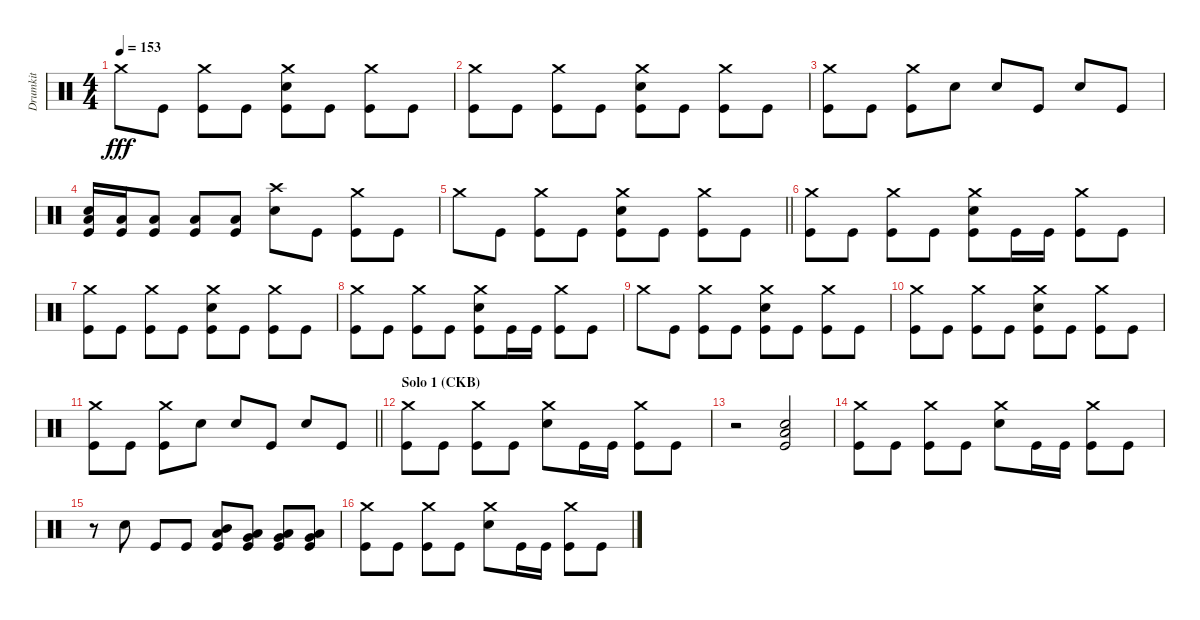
\track ("Drumkit" "Drumkit") {instrument percussion}
\staff {score}
\articulation defaults
\ts (4 4)
\tempo 153
\clef neutral
\ks c "Crash medium (hit)".8{dy fff} "Kick (hit)".8
("Crash medium (hit)" "Kick (hit)").8 "Kick (hit)".8 ("Crash medium (hit)" "Snare (hit) 2" "Kick (hit)").8 "Kick (hit)".8 ("Crash medium (hit)" "Kick (hit)").8 "Kick (hit)".8 |
("Crash medium (hit)" "Kick (hit)").8 "Kick (hit)".8 ("Crash medium (hit)" "Kick (hit)").8 "Kick (hit)".8 ("Crash medium (hit)" "Snare (hit) 2" "Kick (hit)").8 "Kick (hit)".8 ("Crash medium (hit)" "Kick (hit)").8 "Kick (hit)".8 |
("Crash medium (hit)" "Kick (hit)").8 "Kick (hit)".8 ("Crash medium (hit)" "Kick (hit)").8 "Snare (hit) 2".8 "Snare (hit) 2".8 "Kick (hit)".8 "Snare (hit) 2".8 "Kick (hit)".8 |
("Low Floor Tom (hit)" "Snare (hit) 2" "Kick (hit)").16 ("Low Floor Tom (hit)" "Kick (hit)").16 ("Low Floor Tom (hit)" "Kick (hit)").8 ("Low Floor Tom (hit)" "Kick (hit)").8 ("Low Floor Tom (hit)" "Kick (hit)").8 ("Crash high (hit)" "Snare (hit) 2").8 "Kick (hit)".8 ("Crash medium (hit)" "Kick (hit)").8 "Kick (hit)".8 |
\barLineRight lightlight "Crash medium (hit)".8 "Kick (hit)".8
("Crash medium (hit)" "Kick (hit)").8 "Kick (hit)".8 ("Crash medium (hit)" "Snare (hit) 2" "Kick (hit)").8 "Kick (hit)".8 ("Crash medium (hit)" "Kick (hit)").8 "Kick (hit)".8 |
("Crash medium (hit)" "Kick (hit)").8 "Kick (hit)".8 ("Crash medium (hit)" "Kick (hit)").8 "Kick (hit)".8 ("Crash medium (hit)" "Snare (hit) 2" "Kick (hit)").8 "Kick (hit)".16 "Kick (hit)".16 ("Crash medium (hit)" "Kick (hit)").8 "Kick (hit)".8 |
("Crash medium (hit)" "Kick (hit)").8 "Kick (hit)".8 ("Crash medium (hit)" "Kick (hit)").8 "Kick (hit)".8 ("Crash medium (hit)" "Snare (hit) 2" "Kick (hit)").8 "Kick (hit)".8 ("Crash medium (hit)" "Kick (hit)").8 "Kick (hit)".8 |
("Crash medium (hit)" "Kick (hit)").8 "Kick (hit)".8 ("Crash medium (hit)" "Kick (hit)").8 "Kick (hit)".8 ("Crash medium (hit)" "Snare (hit) 2" "Kick (hit)").8 "Kick (hit)".16 "Kick (hit)".16 ("Crash medium (hit)" "Kick (hit)").8 "Kick (hit)".8 |
"Crash medium (hit)".8 "Kick (hit)".8 ("Crash medium (hit)" "Kick (hit)").8 "Kick (hit)".8 ("Crash medium (hit)" "Snare (hit) 2" "Kick (hit)").8 "Kick (hit)".8 ("Crash medium (hit)" "Kick (hit)").8 "Kick (hit)".8 |
("Crash medium (hit)" "Kick (hit)").8 "Kick (hit)".8 ("Crash medium (hit)" "Kick (hit)").8 "Kick (hit)".8 ("Crash medium (hit)" "Snare (hit) 2" "Kick (hit)").8 "Kick (hit)".8 ("Crash medium (hit)" "Kick (hit)").8 "Kick (hit)".8 |
\barLineRight lightlight
("Crash medium (hit)" "Kick (hit)").8 "Kick (hit)".8 ("Crash medium (hit)" "Kick (hit)").8 "Snare (hit) 2".8 "Snare (hit) 2".8 "Kick (hit)".8 "Snare (hit) 2".8 "Kick (hit)".8 |
\section ("" "Solo 1 (CKB)")
("Crash medium (hit)" "Kick (hit)").8 "Kick (hit)".8 ("Crash medium (hit)" "Kick (hit)").8 "Kick (hit)".8 ("Crash medium (hit)" "Snare (hit) 2").8 "Kick (hit)".16 "Kick (hit)".16 ("Crash medium (hit)" "Kick (hit)").8 "Kick (hit)".8 |
r.2 ("Low Floor Tom (hit)" "Kick (hit)" "Snare (hit) 2").2 |
("Crash medium (hit)" "Kick (hit)").8 "Kick (hit)".8 ("Crash medium (hit)" "Kick (hit)").8 "Kick (hit)".8 ("Crash medium (hit)" "Snare (hit) 2").8 "Kick (hit)".16 "Kick (hit)".16 ("Crash medium (hit)" "Kick (hit)").8 "Kick (hit)".8 |
r.8 "Snare (hit) 2".8 "Kick (hit)".8 "Kick (hit)".8 ("Mid Tom (hit)" "Low Tom (hit)" "Kick (hit)").8 ("Low Tom (hit)" "Kick (hit)" "Very Low Tom (hit)").8 ("Low Tom (hit)" "Very Low Tom (hit)" "Kick (hit)").8 ("Very Low Tom (hit)" "Kick (hit)" "Low Floor Tom (hit)").8 |
("Crash medium (hit)" "Kick (hit)").8 "Kick (hit)".8 ("Crash medium (hit)" "Kick (hit)").8 "Kick (hit)".8 ("Crash medium (hit)" "Snare (hit) 2").8 "Kick (hit)".16 "Kick (hit)".16 ("Crash medium (hit)" "Kick (hit)").8 "Kick (hit)".8
